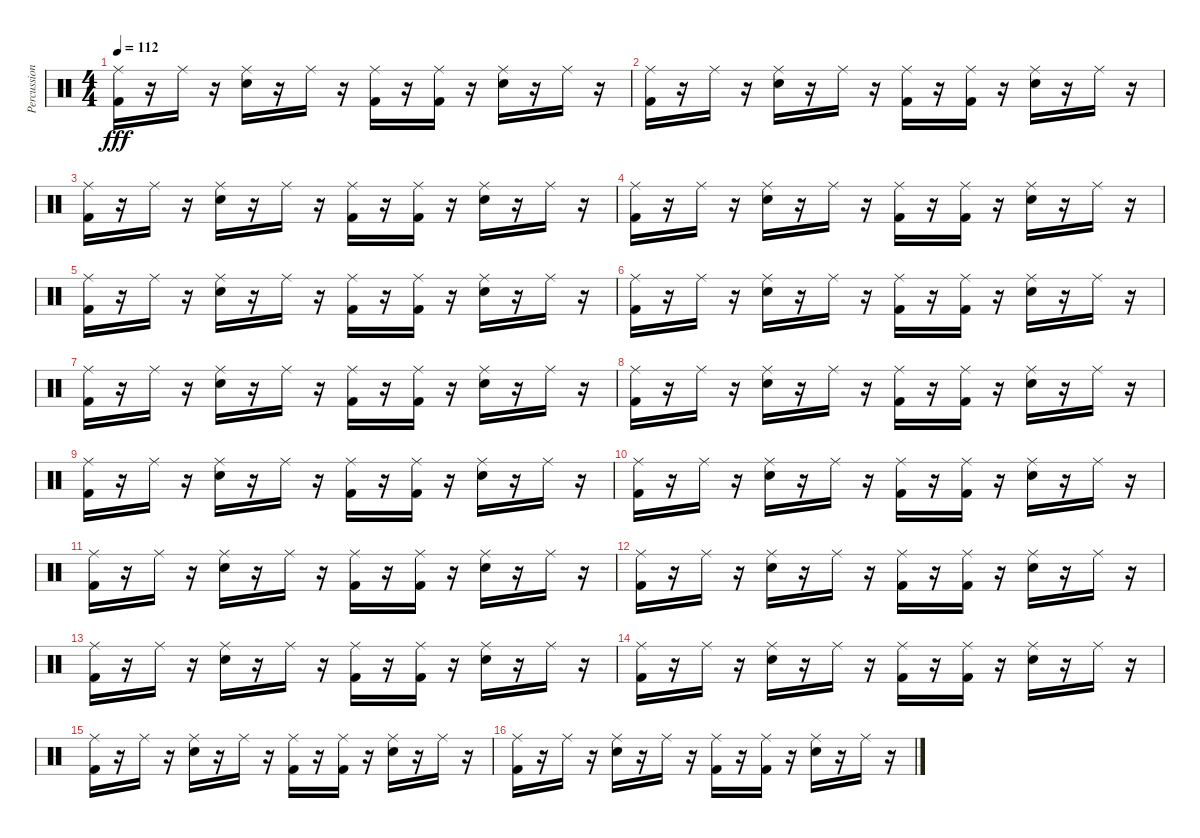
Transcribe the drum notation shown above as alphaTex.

\track ("Percussions" "Percussion") {instrument percussion}
\staff {score}
\articulation defaults
\ts (4 4)
\tempo 112
\clef neutral
\ks c
("Ride (middle)" "Kick (hit) 2").16{dy fff} r.16 "Ride (middle)".16 r.16 ("Ride (middle)" "Electric Snare (hit)").16 r.16 "Ride (middle)".16 r.16 ("Ride (middle)" "Kick (hit) 2").16 r.16 ("Ride (middle)" "Kick (hit) 2").16 r.16 ("Ride (middle)" "Electric Snare (hit)").16 r.16 "Ride (middle)".16 r.16 |
("Ride (middle)" "Kick (hit) 2").16 r.16 "Ride (middle)".16 r.16 ("Ride (middle)" "Electric Snare (hit)").16 r.16 "Ride (middle)".16 r.16 ("Ride (middle)" "Kick (hit) 2").16 r.16 ("Ride (middle)" "Kick (hit) 2").16 r.16 ("Ride (middle)" "Electric Snare (hit)").16 r.16 "Ride (middle)".16 r.16 |
("Ride (middle)" "Kick (hit) 2").16 r.16 "Ride (middle)".16 r.16 ("Ride (middle)" "Electric Snare (hit)").16 r.16 "Ride (middle)".16 r.16 ("Ride (middle)" "Kick (hit) 2").16 r.16 ("Ride (middle)" "Kick (hit) 2").16 r.16 ("Ride (middle)" "Electric Snare (hit)").16 r.16 "Ride (middle)".16 r.16 |
("Ride (middle)" "Kick (hit) 2").16 r.16 "Ride (middle)".16 r.16 ("Ride (middle)" "Electric Snare (hit)").16 r.16 "Ride (middle)".16 r.16 ("Ride (middle)" "Kick (hit) 2").16 r.16 ("Ride (middle)" "Kick (hit) 2").16 r.16 ("Ride (middle)" "Electric Snare (hit)").16 r.16 "Ride (middle)".16 r.16 |
("Ride (middle)" "Kick (hit) 2").16 r.16 "Ride (middle)".16 r.16 ("Ride (middle)" "Electric Snare (hit)").16 r.16 "Ride (middle)".16 r.16 ("Ride (middle)" "Kick (hit) 2").16 r.16 ("Ride (middle)" "Kick (hit) 2").16 r.16 ("Ride (middle)" "Electric Snare (hit)").16 r.16 "Ride (middle)".16 r.16 |
("Ride (middle)" "Kick (hit) 2").16 r.16 "Ride (middle)".16 r.16 ("Ride (middle)" "Electric Snare (hit)").16 r.16 "Ride (middle)".16 r.16 ("Ride (middle)" "Kick (hit) 2").16 r.16 ("Ride (middle)" "Kick (hit) 2").16 r.16 ("Ride (middle)" "Electric Snare (hit)").16 r.16 "Ride (middle)".16 r.16 |
("Ride (middle)" "Kick (hit) 2").16 r.16 "Ride (middle)".16 r.16 ("Ride (middle)" "Electric Snare (hit)").16 r.16 "Ride (middle)".16 r.16 ("Ride (middle)" "Kick (hit) 2").16 r.16 ("Ride (middle)" "Kick (hit) 2").16 r.16 ("Ride (middle)" "Electric Snare (hit)").16 r.16 "Ride (middle)".16 r.16 |
("Ride (middle)" "Kick (hit) 2").16 r.16 "Ride (middle)".16 r.16 ("Ride (middle)" "Electric Snare (hit)").16 r.16 "Ride (middle)".16 r.16 ("Ride (middle)" "Kick (hit) 2").16 r.16 ("Ride (middle)" "Kick (hit) 2").16 r.16 ("Ride (middle)" "Electric Snare (hit)").16 r.16 "Ride (middle)".16 r.16 |
("Ride (middle)" "Kick (hit) 2").16 r.16 "Ride (middle)".16 r.16 ("Ride (middle)" "Electric Snare (hit)").16 r.16 "Ride (middle)".16 r.16 ("Ride (middle)" "Kick (hit) 2").16 r.16 ("Ride (middle)" "Kick (hit) 2").16 r.16 ("Ride (middle)" "Electric Snare (hit)").16 r.16 "Ride (middle)".16 r.16 |
("Ride (middle)" "Kick (hit) 2").16 r.16 "Ride (middle)".16 r.16 ("Ride (middle)" "Electric Snare (hit)").16 r.16 "Ride (middle)".16 r.16 ("Ride (middle)" "Kick (hit) 2").16 r.16 ("Ride (middle)" "Kick (hit) 2").16 r.16 ("Ride (middle)" "Electric Snare (hit)").16 r.16 "Ride (middle)".16 r.16 |
("Ride (middle)" "Kick (hit) 2").16 r.16 "Ride (middle)".16 r.16 ("Ride (middle)" "Electric Snare (hit)").16 r.16 "Ride (middle)".16 r.16 ("Ride (middle)" "Kick (hit) 2").16 r.16 ("Ride (middle)" "Kick (hit) 2").16 r.16 ("Ride (middle)" "Electric Snare (hit)").16 r.16 "Ride (middle)".16 r.16 |
("Ride (middle)" "Kick (hit) 2").16 r.16 "Ride (middle)".16 r.16 ("Ride (middle)" "Electric Snare (hit)").16 r.16 "Ride (middle)".16 r.16 ("Ride (middle)" "Kick (hit) 2").16 r.16 ("Ride (middle)" "Kick (hit) 2").16 r.16 ("Ride (middle)" "Electric Snare (hit)").16 r.16 "Ride (middle)".16 r.16 |
("Ride (middle)" "Kick (hit) 2").16 r.16 "Ride (middle)".16 r.16 ("Ride (middle)" "Electric Snare (hit)").16 r.16 "Ride (middle)".16 r.16 ("Ride (middle)" "Kick (hit) 2").16 r.16 ("Ride (middle)" "Kick (hit) 2").16 r.16 ("Ride (middle)" "Electric Snare (hit)").16 r.16 "Ride (middle)".16 r.16 |
("Ride (middle)" "Kick (hit) 2").16 r.16 "Ride (middle)".16 r.16 ("Ride (middle)" "Electric Snare (hit)").16 r.16 "Ride (middle)".16 r.16 ("Ride (middle)" "Kick (hit) 2").16 r.16 ("Ride (middle)" "Kick (hit) 2").16 r.16 ("Ride (middle)" "Electric Snare (hit)").16 r.16 "Ride (middle)".16 r.16 |
("Ride (middle)" "Kick (hit) 2").16 r.16 "Ride (middle)".16 r.16 ("Ride (middle)" "Electric Snare (hit)").16 r.16 "Ride (middle)".16 r.16 ("Ride (middle)" "Kick (hit) 2").16 r.16 ("Ride (middle)" "Kick (hit) 2").16 r.16 ("Ride (middle)" "Electric Snare (hit)").16 r.16 "Ride (middle)".16 r.16 |
("Ride (middle)" "Kick (hit) 2").16 r.16 "Ride (middle)".16 r.16 ("Ride (middle)" "Electric Snare (hit)").16 r.16 "Ride (middle)".16 r.16 ("Ride (middle)" "Kick (hit) 2").16 r.16 ("Ride (middle)" "Kick (hit) 2").16 r.16 ("Ride (middle)" "Electric Snare (hit)").16 r.16 "Ride (middle)".16 r.16
